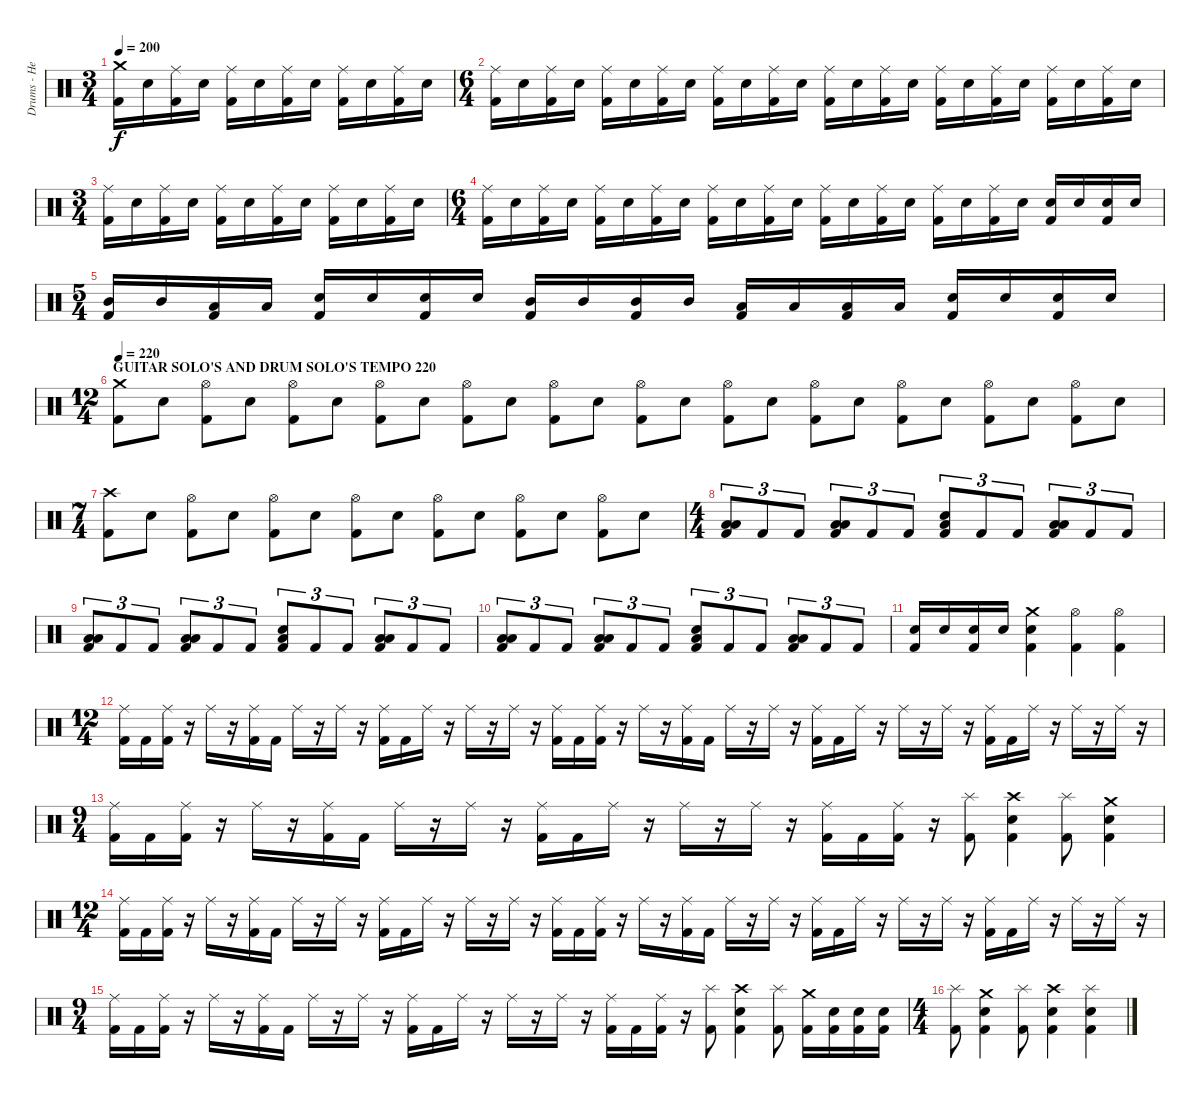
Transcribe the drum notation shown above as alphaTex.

\track ("Drums - Hellhammer" "Drums - He") {instrument percussion}
\staff {score}
\articulation defaults
\ts (3 4)
\tempo 200
\clef neutral
\ks c
("Crash medium (hit)" "Kick (hit) 2").16{dy f} "Electric Snare (hit)".16 ("Ride (middle)" "Kick (hit) 2").16 "Electric Snare (hit)".16 ("Ride (middle)" "Kick (hit) 2").16 "Electric Snare (hit)".16 ("Ride (middle)" "Kick (hit) 2").16 "Electric Snare (hit)".16 ("Ride (middle)" "Kick (hit) 2").16 "Electric Snare (hit)".16 ("Ride (middle)" "Kick (hit) 2").16 "Electric Snare (hit)".16 |
\ts (6 4)
("Ride (middle)" "Kick (hit) 2").16 "Electric Snare (hit)".16 ("Ride (middle)" "Kick (hit) 2").16 "Electric Snare (hit)".16 ("Ride (middle)" "Kick (hit) 2").16 "Electric Snare (hit)".16 ("Ride (middle)" "Kick (hit) 2").16 "Electric Snare (hit)".16 ("Ride (middle)" "Kick (hit) 2").16 "Electric Snare (hit)".16 ("Ride (middle)" "Kick (hit) 2").16 "Electric Snare (hit)".16 ("Ride (middle)" "Kick (hit) 2").16 "Electric Snare (hit)".16 ("Ride (middle)" "Kick (hit) 2").16 "Electric Snare (hit)".16 ("Ride (middle)" "Kick (hit) 2").16 "Electric Snare (hit)".16 ("Ride (middle)" "Kick (hit) 2").16 "Electric Snare (hit)".16 ("Ride (middle)" "Kick (hit) 2").16 "Electric Snare (hit)".16 ("Ride (middle)" "Kick (hit) 2").16 "Electric Snare (hit)".16 |
\ts (3 4)
("Ride (middle)" "Kick (hit) 2").16 "Electric Snare (hit)".16 ("Ride (middle)" "Kick (hit) 2").16 "Electric Snare (hit)".16 ("Ride (middle)" "Kick (hit) 2").16 "Electric Snare (hit)".16 ("Ride (middle)" "Kick (hit) 2").16 "Electric Snare (hit)".16 ("Ride (middle)" "Kick (hit) 2").16 "Electric Snare (hit)".16 ("Ride (middle)" "Kick (hit) 2").16 "Electric Snare (hit)".16 |
\ts (6 4)
("Ride (middle)" "Kick (hit) 2").16 "Electric Snare (hit)".16 ("Ride (middle)" "Kick (hit) 2").16 "Electric Snare (hit)".16 ("Ride (middle)" "Kick (hit) 2").16 "Electric Snare (hit)".16 ("Ride (middle)" "Kick (hit) 2").16 "Electric Snare (hit)".16 ("Ride (middle)" "Kick (hit) 2").16 "Electric Snare (hit)".16 ("Ride (middle)" "Kick (hit) 2").16 "Electric Snare (hit)".16 ("Ride (middle)" "Kick (hit) 2").16 "Electric Snare (hit)".16 ("Ride (middle)" "Kick (hit) 2").16 "Electric Snare (hit)".16 ("Ride (middle)" "Kick (hit) 2").16 "Electric Snare (hit)".16 ("Ride (middle)" "Kick (hit) 2").16 "Electric Snare (hit)".16 ("Electric Snare (hit)" "Kick (hit) 2").16 "Electric Snare (hit)".16 ("Electric Snare (hit)" "Kick (hit) 2").16 "Electric Snare (hit)".16 |
\ts (5 4)
("Mid Tom (hit)" "Kick (hit) 2").16 "Mid Tom (hit)".16 ("Low Tom (hit)" "Kick (hit) 2").16 "Low Tom (hit)".16 ("Electric Snare (hit)" "Kick (hit) 2").16 "Electric Snare (hit)".16 ("Electric Snare (hit)" "Kick (hit) 2").16 "Electric Snare (hit)".16 ("Mid Tom (hit)" "Kick (hit) 2").16 "Mid Tom (hit)".16 ("Mid Tom (hit)" "Kick (hit) 2").16 "Mid Tom (hit)".16 ("Low Tom (hit)" "Kick (hit) 2").16 "Low Tom (hit)".16 ("Low Tom (hit)" "Kick (hit) 2").16 "Low Tom (hit)".16 ("Electric Snare (hit)" "Kick (hit) 2").16 "Electric Snare (hit)".16 ("Electric Snare (hit)" "Kick (hit) 2").16 "Electric Snare (hit)".16 |
\ts (12 4)
\section ("" "GUITAR SOLO'S AND DRUM SOLO'S TEMPO 220")
\tempo 220
("Crash medium (hit)" "Kick (hit) 2").8 "Electric Snare (hit)".8 ("Hi-Hat (open)" "Kick (hit) 2").8 "Electric Snare (hit)".8 ("Hi-Hat (open)" "Kick (hit) 2").8 "Electric Snare (hit)".8 ("Hi-Hat (open)" "Kick (hit) 2").8 "Electric Snare (hit)".8 ("Hi-Hat (open)" "Kick (hit) 2").8 "Electric Snare (hit)".8 ("Hi-Hat (open)" "Kick (hit) 2").8 "Electric Snare (hit)".8 ("Hi-Hat (open)" "Kick (hit) 2").8 "Electric Snare (hit)".8 ("Hi-Hat (open)" "Kick (hit) 2").8 "Electric Snare (hit)".8 ("Hi-Hat (open)" "Kick (hit) 2").8 "Electric Snare (hit)".8 ("Hi-Hat (open)" "Kick (hit) 2").8 "Electric Snare (hit)".8 ("Hi-Hat (open)" "Kick (hit) 2").8 "Electric Snare (hit)".8 ("Hi-Hat (open)" "Kick (hit) 2").8 "Electric Snare (hit)".8 |
\ts (7 4)
("Crash high (hit)" "Kick (hit) 2").8 "Electric Snare (hit)".8 ("Hi-Hat (open)" "Kick (hit) 2").8 "Electric Snare (hit)".8 ("Hi-Hat (open)" "Kick (hit) 2").8 "Electric Snare (hit)".8 ("Hi-Hat (open)" "Kick (hit) 2").8 "Electric Snare (hit)".8 ("Hi-Hat (open)" "Kick (hit) 2").8 "Electric Snare (hit)".8 ("Hi-Hat (open)" "Kick (hit) 2").8 "Electric Snare (hit)".8 ("Hi-Hat (open)" "Kick (hit) 2").8 "Electric Snare (hit)".8 |
\ts (4 4)
("Low Floor Tom (hit)" "Low Tom (hit)" "Kick (hit) 2").8{tu (3 2)} "Kick (hit) 2".8{tu (3 2)} "Kick (hit) 2".8{tu (3 2)} ("Low Floor Tom (hit)" "Low Tom (hit)" "Kick (hit) 2").8{tu (3 2)} "Kick (hit) 2".8{tu (3 2)} "Kick (hit) 2".8{tu (3 2)} ("Low Floor Tom (hit)" "Electric Snare (hit)" "Kick (hit) 2").8{tu (3 2)} "Kick (hit) 2".8{tu (3 2)} "Kick (hit) 2".8{tu (3 2)} ("Low Floor Tom (hit)" "Low Tom (hit)" "Kick (hit) 2").8{tu (3 2)} "Kick (hit) 2".8{tu (3 2)} "Kick (hit) 2".8{tu (3 2)} |
("Low Floor Tom (hit)" "Low Tom (hit)" "Kick (hit) 2").8{tu (3 2)} "Kick (hit) 2".8{tu (3 2)} "Kick (hit) 2".8{tu (3 2)} ("Low Floor Tom (hit)" "Low Tom (hit)" "Kick (hit) 2").8{tu (3 2)} "Kick (hit) 2".8{tu (3 2)} "Kick (hit) 2".8{tu (3 2)} ("Low Floor Tom (hit)" "Electric Snare (hit)" "Kick (hit) 2").8{tu (3 2)} "Kick (hit) 2".8{tu (3 2)} "Kick (hit) 2".8{tu (3 2)} ("Low Floor Tom (hit)" "Low Tom (hit)" "Kick (hit) 2").8{tu (3 2)} "Kick (hit) 2".8{tu (3 2)} "Kick (hit) 2".8{tu (3 2)} |
("Low Floor Tom (hit)" "Low Tom (hit)" "Kick (hit) 2").8{tu (3 2)} "Kick (hit) 2".8{tu (3 2)} "Kick (hit) 2".8{tu (3 2)} ("Low Floor Tom (hit)" "Low Tom (hit)" "Kick (hit) 2").8{tu (3 2)} "Kick (hit) 2".8{tu (3 2)} "Kick (hit) 2".8{tu (3 2)} ("Low Floor Tom (hit)" "Electric Snare (hit)" "Kick (hit) 2").8{tu (3 2)} "Kick (hit) 2".8{tu (3 2)} "Kick (hit) 2".8{tu (3 2)} ("Low Floor Tom (hit)" "Low Tom (hit)" "Kick (hit) 2").8{tu (3 2)} "Kick (hit) 2".8{tu (3 2)} "Kick (hit) 2".8{tu (3 2)} |
("Electric Snare (hit)" "Kick (hit) 2").16 "Electric Snare (hit)".16 ("Electric Snare (hit)" "Kick (hit) 2").16 "Electric Snare (hit)".16 ("Crash medium (hit)" "Electric Snare (hit)" "Kick (hit) 2").4 ("Hi-Hat (open)" "Kick (hit) 2").4 ("Hi-Hat (open)" "Kick (hit) 2").4 |
\ts (12 4)
("Ride (middle)" "Kick (hit) 2").16 "Kick (hit) 2".16 ("Ride (middle)" "Kick (hit) 2").16 r.16 "Ride (middle)".16 r.16 ("Ride (middle)" "Kick (hit) 2").16 "Kick (hit) 2".16 "Ride (middle)".16 r.16 "Ride (middle)".16 r.16 ("Ride (middle)" "Kick (hit) 2").16 "Kick (hit) 2".16 "Ride (middle)".16 r.16 "Ride (middle)".16 r.16 "Ride (middle)".16 r.16 ("Ride (middle)" "Kick (hit) 2").16 "Kick (hit) 2".16 ("Ride (middle)" "Kick (hit) 2").16 r.16 "Ride (middle)".16 r.16 ("Ride (middle)" "Kick (hit) 2").16 "Kick (hit) 2".16 "Ride (middle)".16 r.16 "Ride (middle)".16 r.16 ("Ride (middle)" "Kick (hit) 2").16 "Kick (hit) 2".16 "Ride (middle)".16 r.16 "Ride (middle)".16 r.16 "Ride (middle)".16 r.16 ("Ride (middle)" "Kick (hit) 2").16 "Kick (hit) 2".16 "Ride (middle)".16 r.16 "Ride (middle)".16 r.16 "Ride (middle)".16 r.16 |
\ts (9 4)
("Ride (middle)" "Kick (hit) 2").16 "Kick (hit) 2".16 ("Ride (middle)" "Kick (hit) 2").16 r.16 "Ride (middle)".16 r.16 ("Ride (middle)" "Kick (hit) 2").16 "Kick (hit) 2".16 "Ride (middle)".16 r.16 "Ride (middle)".16 r.16 ("Ride (middle)" "Kick (hit) 2").16 "Kick (hit) 2".16 "Ride (middle)".16 r.16 "Ride (middle)".16 r.16 "Ride (middle)".16 r.16 ("Ride (middle)" "Kick (hit) 2").16 "Kick (hit) 2".16 ("Ride (middle)" "Kick (hit) 2").16 r.16 ("Splash (hit)" "Kick (hit) 2").8 ("Crash high (hit)" "Electric Snare (hit)" "Kick (hit) 2").4 ("Splash (hit)" "Kick (hit) 2").8 ("Crash medium (hit)" "Electric Snare (hit)" "Kick (hit) 2").4 |
\ts (12 4)
("Ride (middle)" "Kick (hit) 2").16 "Kick (hit) 2".16 ("Ride (middle)" "Kick (hit) 2").16 r.16 "Ride (middle)".16 r.16 ("Ride (middle)" "Kick (hit) 2").16 "Kick (hit) 2".16 "Ride (middle)".16 r.16 "Ride (middle)".16 r.16 ("Ride (middle)" "Kick (hit) 2").16 "Kick (hit) 2".16 "Ride (middle)".16 r.16 "Ride (middle)".16 r.16 "Ride (middle)".16 r.16 ("Ride (middle)" "Kick (hit) 2").16 "Kick (hit) 2".16 ("Ride (middle)" "Kick (hit) 2").16 r.16 "Ride (middle)".16 r.16 ("Ride (middle)" "Kick (hit) 2").16 "Kick (hit) 2".16 "Ride (middle)".16 r.16 "Ride (middle)".16 r.16 ("Ride (middle)" "Kick (hit) 2").16 "Kick (hit) 2".16 "Ride (middle)".16 r.16 "Ride (middle)".16 r.16 "Ride (middle)".16 r.16 ("Ride (middle)" "Kick (hit) 2").16 "Kick (hit) 2".16 "Ride (middle)".16 r.16 "Ride (middle)".16 r.16 "Ride (middle)".16 r.16 |
\ts (9 4)
("Ride (middle)" "Kick (hit) 2").16 "Kick (hit) 2".16 ("Ride (middle)" "Kick (hit) 2").16 r.16 "Ride (middle)".16 r.16 ("Ride (middle)" "Kick (hit) 2").16 "Kick (hit) 2".16 "Ride (middle)".16 r.16 "Ride (middle)".16 r.16 ("Ride (middle)" "Kick (hit) 2").16 "Kick (hit) 2".16 "Ride (middle)".16 r.16 "Ride (middle)".16 r.16 "Ride (middle)".16 r.16 ("Ride (middle)" "Kick (hit) 2").16 "Kick (hit) 2".16 ("Ride (middle)" "Kick (hit) 2").16 r.16 ("Splash (hit)" "Kick (hit) 2").8 ("Crash high (hit)" "Electric Snare (hit)" "Kick (hit) 2").4 ("Splash (hit)" "Kick (hit) 2").8 ("Crash medium (hit)" "Kick (hit) 2").16 ("Electric Snare (hit)" "Kick (hit) 2").16 ("Electric Snare (hit)" "Kick (hit) 2").16 ("Electric Snare (hit)" "Kick (hit) 2").16 |
\ts (4 4)
("Splash (hit)" "Kick (hit) 2").8 ("Crash medium (hit)" "Electric Snare (hit)" "Kick (hit) 2").4 ("Splash (hit)" "Kick (hit) 2").8 ("Crash high (hit)" "Electric Snare (hit)" "Kick (hit) 2").4 ("Splash (hit)" "Electric Snare (hit)" "Kick (hit) 2").4
